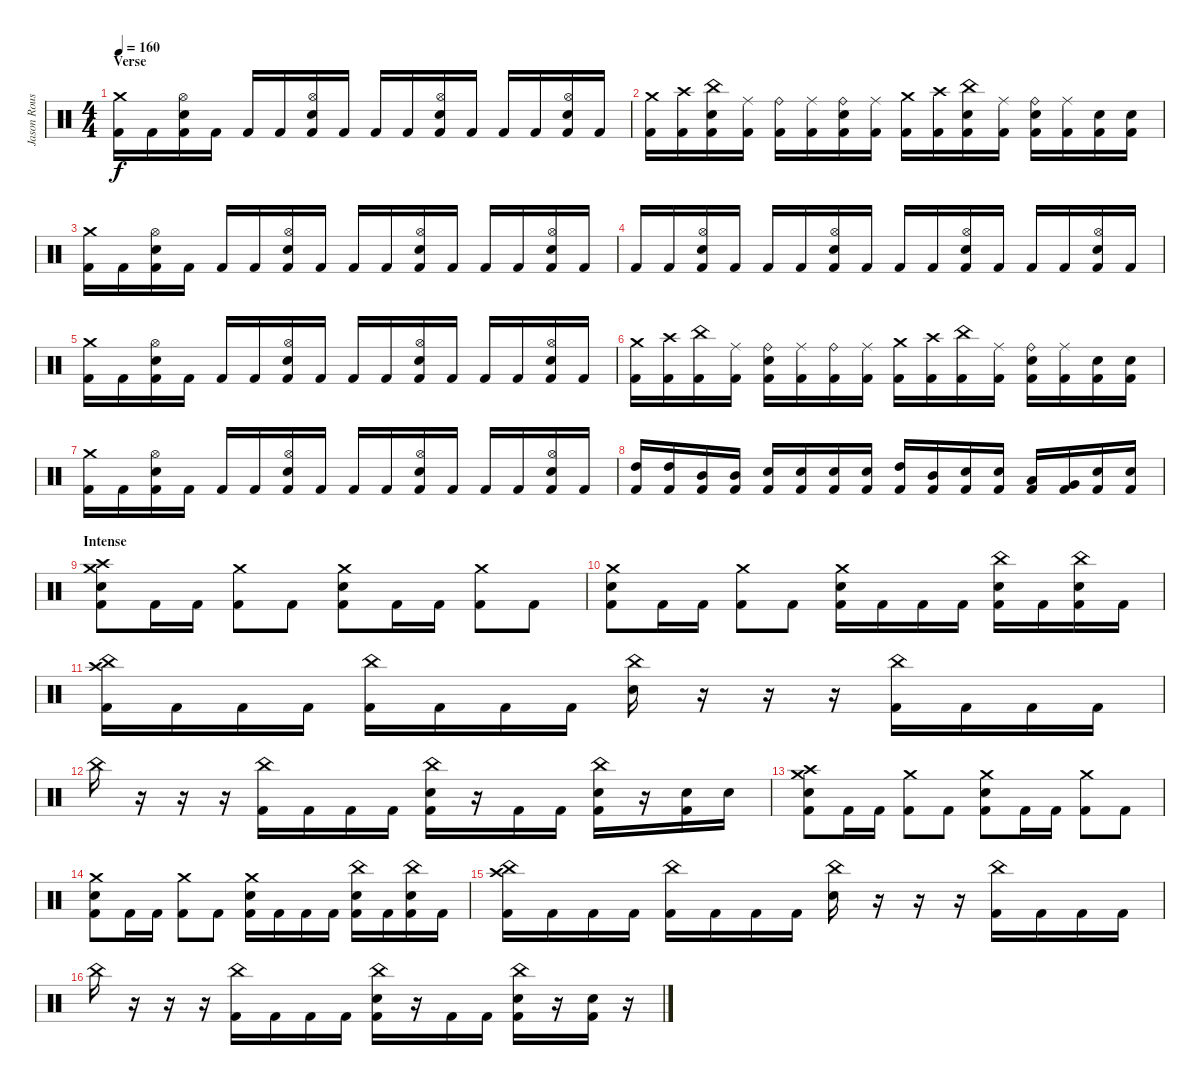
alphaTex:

\track ("Jason Rousseau" "Jason Rous") {instrument percussion}
\staff {score}
\articulation defaults
\ts (4 4)
\section ("" "Verse")
\tempo 160
\clef neutral
\ks c
("Crash medium (hit)" "Kick (hit) 2").16{dy f} "Kick (hit) 2".16 ("Hi-Hat (open)" "Electric Snare (hit)" "Kick (hit) 2").16 "Kick (hit) 2".16 "Kick (hit) 2".16 "Kick (hit) 2".16 ("Hi-Hat (open)" "Electric Snare (hit)" "Kick (hit) 2").16 "Kick (hit) 2".16 "Kick (hit) 2".16 "Kick (hit) 2".16 ("Hi-Hat (open)" "Electric Snare (hit)" "Kick (hit) 2").16 "Kick (hit) 2".16 "Kick (hit) 2".16 "Kick (hit) 2".16 ("Hi-Hat (open)" "Electric Snare (hit)" "Kick (hit) 2").16 "Kick (hit) 2".16 |
("Crash medium (hit)" "Kick (hit) 2").16 ("Crash high (hit)" "Kick (hit) 2").16 ("China (hit)" "Electric Snare (hit)" "Kick (hit) 2").16 ("Ride (middle)" "Kick (hit) 2").16 ("Ride (bell)" "Kick (hit) 2").16 ("Ride (middle)" "Kick (hit) 2").16 ("Ride (bell)" "Electric Snare (hit)" "Kick (hit) 2").16 ("Ride (middle)" "Kick (hit) 2").16 ("Crash medium (hit)" "Kick (hit) 2").16 ("Crash high (hit)" "Kick (hit) 2").16 ("China (hit)" "Electric Snare (hit)" "Kick (hit) 2").16 ("Ride (middle)" "Kick (hit) 2").16 ("Ride (bell)" "Electric Snare (hit)" "Kick (hit) 2").16 ("Ride (middle)" "Kick (hit) 2").16 ("Electric Snare (hit)" "Kick (hit) 2").16 ("Electric Snare (hit)" "Kick (hit) 2").16 |
("Crash medium (hit)" "Kick (hit) 2").16 "Kick (hit) 2".16 ("Hi-Hat (open)" "Electric Snare (hit)" "Kick (hit) 2").16 "Kick (hit) 2".16 "Kick (hit) 2".16 "Kick (hit) 2".16 ("Hi-Hat (open)" "Electric Snare (hit)" "Kick (hit) 2").16 "Kick (hit) 2".16 "Kick (hit) 2".16 "Kick (hit) 2".16 ("Hi-Hat (open)" "Electric Snare (hit)" "Kick (hit) 2").16 "Kick (hit) 2".16 "Kick (hit) 2".16 "Kick (hit) 2".16 ("Hi-Hat (open)" "Electric Snare (hit)" "Kick (hit) 2").16 "Kick (hit) 2".16 |
"Kick (hit) 2".16 "Kick (hit) 2".16 ("Hi-Hat (open)" "Electric Snare (hit)" "Kick (hit) 2").16 "Kick (hit) 2".16 "Kick (hit) 2".16 "Kick (hit) 2".16 ("Hi-Hat (open)" "Electric Snare (hit)" "Kick (hit) 2").16 "Kick (hit) 2".16 "Kick (hit) 2".16 "Kick (hit) 2".16 ("Hi-Hat (open)" "Electric Snare (hit)" "Kick (hit) 2").16 "Kick (hit) 2".16 "Kick (hit) 2".16 "Kick (hit) 2".16 ("Hi-Hat (open)" "Electric Snare (hit)" "Kick (hit) 2").16 "Kick (hit) 2".16 |
("Crash medium (hit)" "Kick (hit) 2").16 "Kick (hit) 2".16 ("Hi-Hat (open)" "Electric Snare (hit)" "Kick (hit) 2").16 "Kick (hit) 2".16 "Kick (hit) 2".16 "Kick (hit) 2".16 ("Hi-Hat (open)" "Electric Snare (hit)" "Kick (hit) 2").16 "Kick (hit) 2".16 "Kick (hit) 2".16 "Kick (hit) 2".16 ("Hi-Hat (open)" "Electric Snare (hit)" "Kick (hit) 2").16 "Kick (hit) 2".16 "Kick (hit) 2".16 "Kick (hit) 2".16 ("Hi-Hat (open)" "Electric Snare (hit)" "Kick (hit) 2").16 "Kick (hit) 2".16 |
("Crash medium (hit)" "Kick (hit) 2").16 ("Crash high (hit)" "Kick (hit) 2").16 ("China (hit)" "Kick (hit) 2").16 ("Ride (middle)" "Kick (hit) 2").16 ("Ride (bell)" "Electric Snare (hit)" "Kick (hit) 2").16 ("Ride (middle)" "Kick (hit) 2").16 ("Ride (bell)" "Kick (hit) 2").16 ("Ride (middle)" "Kick (hit) 2").16 ("Crash medium (hit)" "Kick (hit) 2").16 ("Crash high (hit)" "Kick (hit) 2").16 ("China (hit)" "Kick (hit) 2").16 ("Ride (middle)" "Kick (hit) 2").16 ("Ride (bell)" "Electric Snare (hit)" "Kick (hit) 2").16 ("Ride (middle)" "Kick (hit) 2").16 ("Electric Snare (hit)" "Kick (hit) 2").16 ("Electric Snare (hit)" "Kick (hit) 2").16 |
("Crash medium (hit)" "Kick (hit) 2").16 "Kick (hit) 2".16 ("Hi-Hat (open)" "Electric Snare (hit)" "Kick (hit) 2").16 "Kick (hit) 2".16 "Kick (hit) 2".16 "Kick (hit) 2".16 ("Hi-Hat (open)" "Electric Snare (hit)" "Kick (hit) 2").16 "Kick (hit) 2".16 "Kick (hit) 2".16 "Kick (hit) 2".16 ("Hi-Hat (open)" "Electric Snare (hit)" "Kick (hit) 2").16 "Kick (hit) 2".16 "Kick (hit) 2".16 "Kick (hit) 2".16 ("Hi-Hat (open)" "Electric Snare (hit)" "Kick (hit) 2").16 "Kick (hit) 2".16 |
("High Tom (hit)" "Kick (hit) 2").16 ("High Tom (hit)" "Kick (hit) 2").16 ("Mid Tom (hit)" "Kick (hit) 2").16 ("Mid Tom (hit)" "Kick (hit) 2").16 ("Electric Snare (hit)" "Kick (hit) 2").16 ("Electric Snare (hit)" "Kick (hit) 2").16 ("Electric Snare (hit)" "Kick (hit) 2").16 ("Electric Snare (hit)" "Kick (hit) 2").16 ("High Tom (hit)" "Kick (hit) 2").16 ("Mid Tom (hit)" "Kick (hit) 2").16 ("Electric Snare (hit)" "Kick (hit) 2").16 ("Electric Snare (hit)" "Kick (hit) 2").16 ("Low Tom (hit)" "Kick (hit) 2").16 ("Very Low Tom (hit)" "Kick (hit) 2").16 ("Electric Snare (hit)" "Kick (hit) 2").16 ("Electric Snare (hit)" "Kick (hit) 2").16 |
\section ("" "Intense")
("Crash high (hit)" "Crash medium (hit)" "Electric Snare (hit)" "Kick (hit) 2").8 "Kick (hit) 2".16 "Kick (hit) 2".16 ("Crash medium (hit)" "Kick (hit) 2").8 "Kick (hit) 2".8 ("Crash medium (hit)" "Electric Snare (hit)" "Kick (hit) 2").8 "Kick (hit) 2".16 "Kick (hit) 2".16 ("Crash medium (hit)" "Kick (hit) 2").8 "Kick (hit) 2".8 |
("Crash medium (hit)" "Electric Snare (hit)" "Kick (hit) 2").8 "Kick (hit) 2".16 "Kick (hit) 2".16 ("Crash medium (hit)" "Kick (hit) 2").8 "Kick (hit) 2".8 ("Crash medium (hit)" "Electric Snare (hit)" "Kick (hit) 2").16 "Kick (hit) 2".16 "Kick (hit) 2".16 "Kick (hit) 2".16 ("China (hit)" "Electric Snare (hit)" "Kick (hit) 2").16 "Kick (hit) 2".16 ("China (hit)" "Electric Snare (hit)" "Kick (hit) 2").16 "Kick (hit) 2".16 |
("Crash high (hit)" "China (hit)" "Kick (hit) 2").16 "Kick (hit) 2".16 "Kick (hit) 2".16 "Kick (hit) 2".16 ("China (hit)" "Kick (hit) 2").16 "Kick (hit) 2".16 "Kick (hit) 2".16 "Kick (hit) 2".16 ("China (hit)" "Electric Snare (hit)").16 r.16 r.16 r.16 ("China (hit)" "Kick (hit) 2").16 "Kick (hit) 2".16 "Kick (hit) 2".16 "Kick (hit) 2".16 |
"China (hit)".16 r.16 r.16 r.16 ("China (hit)" "Kick (hit) 2").16 "Kick (hit) 2".16 "Kick (hit) 2".16 "Kick (hit) 2".16 ("China (hit)" "Electric Snare (hit)" "Kick (hit) 2").16 r.16 "Kick (hit) 2".16 "Kick (hit) 2".16 ("China (hit)" "Electric Snare (hit)" "Kick (hit) 2").16 r.16 ("Electric Snare (hit)" "Kick (hit) 2").16 "Electric Snare (hit)".16 |
("Crash high (hit)" "Crash medium (hit)" "Electric Snare (hit)" "Kick (hit) 2").8 "Kick (hit) 2".16 "Kick (hit) 2".16 ("Crash medium (hit)" "Kick (hit) 2").8 "Kick (hit) 2".8 ("Crash medium (hit)" "Electric Snare (hit)" "Kick (hit) 2").8 "Kick (hit) 2".16 "Kick (hit) 2".16 ("Crash medium (hit)" "Kick (hit) 2").8 "Kick (hit) 2".8 |
("Crash medium (hit)" "Electric Snare (hit)" "Kick (hit) 2").8 "Kick (hit) 2".16 "Kick (hit) 2".16 ("Crash medium (hit)" "Kick (hit) 2").8 "Kick (hit) 2".8 ("Crash medium (hit)" "Electric Snare (hit)" "Kick (hit) 2").16 "Kick (hit) 2".16 "Kick (hit) 2".16 "Kick (hit) 2".16 ("China (hit)" "Electric Snare (hit)" "Kick (hit) 2").16 "Kick (hit) 2".16 ("China (hit)" "Electric Snare (hit)" "Kick (hit) 2").16 "Kick (hit) 2".16 |
("Crash high (hit)" "China (hit)" "Kick (hit) 2").16 "Kick (hit) 2".16 "Kick (hit) 2".16 "Kick (hit) 2".16 ("China (hit)" "Kick (hit) 2").16 "Kick (hit) 2".16 "Kick (hit) 2".16 "Kick (hit) 2".16 ("China (hit)" "Electric Snare (hit)").16 r.16 r.16 r.16 ("China (hit)" "Kick (hit) 2").16 "Kick (hit) 2".16 "Kick (hit) 2".16 "Kick (hit) 2".16 |
"China (hit)".16 r.16 r.16 r.16 ("China (hit)" "Kick (hit) 2").16 "Kick (hit) 2".16 "Kick (hit) 2".16 "Kick (hit) 2".16 ("China (hit)" "Electric Snare (hit)" "Kick (hit) 2").16 r.16 "Kick (hit) 2".16 "Kick (hit) 2".16 ("China (hit)" "Electric Snare (hit)" "Kick (hit) 2").16 r.16 ("Electric Snare (hit)" "Kick (hit) 2").16 r.16
